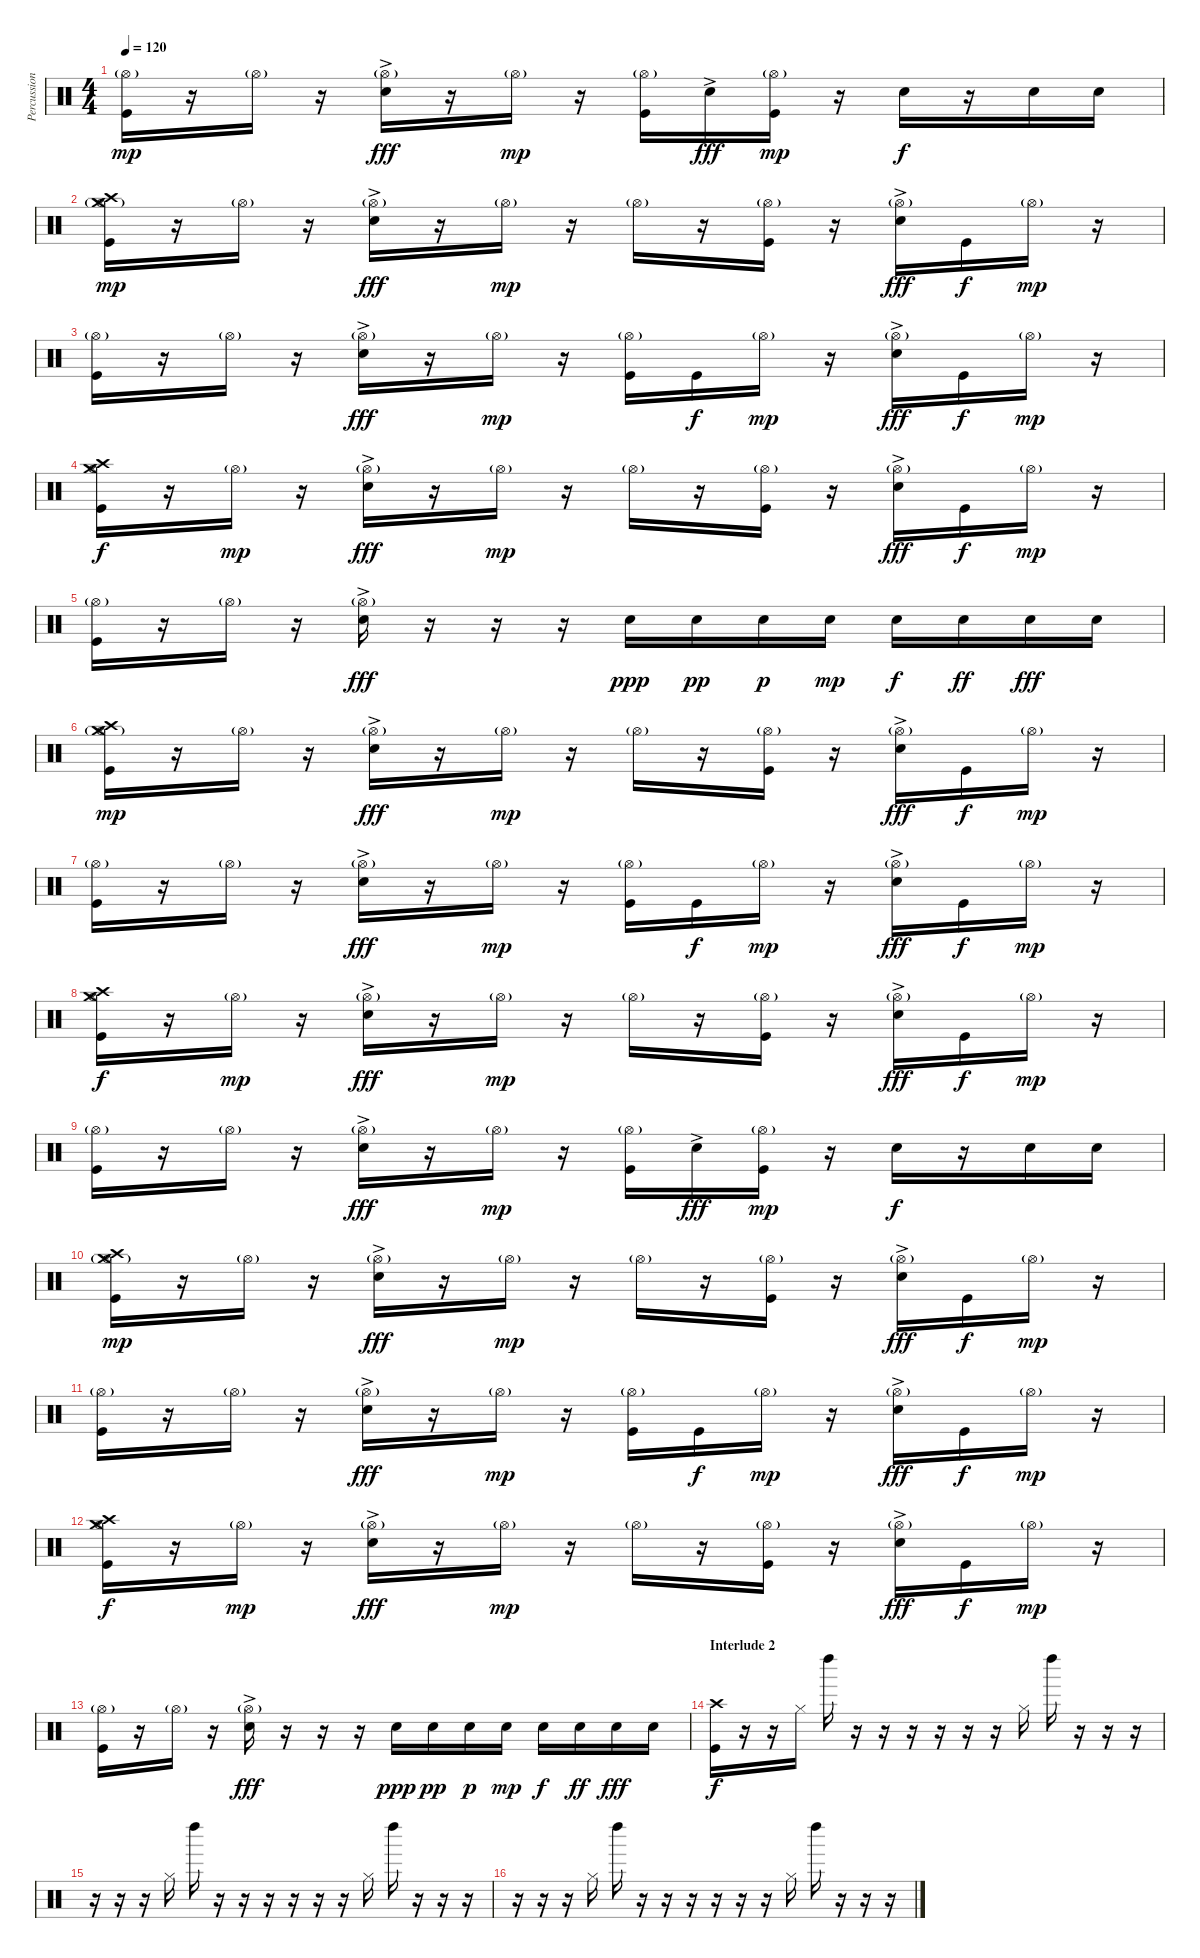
\track ("Percussions" "Percussion") {instrument percussion}
\staff {score}
\articulation defaults
\ts (4 4)
\tempo 120
\clef neutral
\ks c
("Hi-Hat (open)"{g} "Kick (hit)").16{dy mp} r.16 "Hi-Hat (open)"{g}.16 r.16 ("Hi-Hat (open)"{g} "Electric Snare (hit)"{ac}).16{dy fff} r.16 "Hi-Hat (open)"{g}.16{dy mp} r.16 ("Hi-Hat (open)"{g} "Kick (hit)").16 "Electric Snare (hit)"{ac}.16{dy fff} ("Hi-Hat (open)"{g} "Kick (hit)").16{dy mp} r.16 "Electric Snare (hit)".16{dy f} r.16 "Electric Snare (hit)".16 "Electric Snare (hit)".16 |
("Crash high (hit)" "Hi-Hat (open)"{g} "Crash medium (hit)" "Kick (hit)").16{dy mp} r.16 "Hi-Hat (open)"{g}.16 r.16 ("Hi-Hat (open)"{g} "Electric Snare (hit)"{ac}).16{dy fff} r.16 "Hi-Hat (open)"{g}.16{dy mp} r.16 "Hi-Hat (open)"{g}.16 r.16 ("Hi-Hat (open)"{g} "Kick (hit)").16 r.16 ("Hi-Hat (open)"{g} "Electric Snare (hit)"{ac}).16{dy fff} "Kick (hit)".16{dy f} "Hi-Hat (open)"{g}.16{dy mp} r.16 |
("Hi-Hat (open)"{g} "Kick (hit)").16 r.16 "Hi-Hat (open)"{g}.16 r.16 ("Hi-Hat (open)"{g} "Electric Snare (hit)"{ac}).16{dy fff} r.16 "Hi-Hat (open)"{g}.16{dy mp} r.16 ("Hi-Hat (open)"{g} "Kick (hit)").16 "Kick (hit)".16{dy f} "Hi-Hat (open)"{g}.16{dy mp} r.16 ("Hi-Hat (open)"{g} "Electric Snare (hit)"{ac}).16{dy fff} "Kick (hit)".16{dy f} "Hi-Hat (open)"{g}.16{dy mp} r.16 |
("Crash high (hit)" "Hi-Hat (open)" "Crash medium (hit)" "Kick (hit)").16{dy f} r.16 "Hi-Hat (open)"{g}.16{dy mp} r.16 ("Hi-Hat (open)"{g} "Electric Snare (hit)"{ac}).16{dy fff} r.16 "Hi-Hat (open)"{g}.16{dy mp} r.16 "Hi-Hat (open)"{g}.16 r.16 ("Hi-Hat (open)"{g} "Kick (hit)").16 r.16 ("Hi-Hat (open)"{g} "Electric Snare (hit)"{ac}).16{dy fff} "Kick (hit)".16{dy f} "Hi-Hat (open)"{g}.16{dy mp} r.16 |
("Hi-Hat (open)"{g} "Kick (hit)").16 r.16 "Hi-Hat (open)"{g}.16 r.16 ("Hi-Hat (open)"{g} "Electric Snare (hit)"{ac}).16{dy fff} r.16 r.16 r.16 "Electric Snare (hit)".16{dy ppp} "Electric Snare (hit)".16{dy pp} "Electric Snare (hit)".16{dy p} "Electric Snare (hit)".16{dy mp} "Electric Snare (hit)".16{dy f} "Electric Snare (hit)".16{dy ff} "Electric Snare (hit)".16{dy fff} "Electric Snare (hit)".16 |
("Crash high (hit)" "Hi-Hat (open)"{g} "Crash medium (hit)" "Kick (hit)").16{dy mp} r.16 "Hi-Hat (open)"{g}.16 r.16 ("Hi-Hat (open)"{g} "Electric Snare (hit)"{ac}).16{dy fff} r.16 "Hi-Hat (open)"{g}.16{dy mp} r.16 "Hi-Hat (open)"{g}.16 r.16 ("Hi-Hat (open)"{g} "Kick (hit)").16 r.16 ("Hi-Hat (open)"{g} "Electric Snare (hit)"{ac}).16{dy fff} "Kick (hit)".16{dy f} "Hi-Hat (open)"{g}.16{dy mp} r.16 |
("Hi-Hat (open)"{g} "Kick (hit)").16 r.16 "Hi-Hat (open)"{g}.16 r.16 ("Hi-Hat (open)"{g} "Electric Snare (hit)"{ac}).16{dy fff} r.16 "Hi-Hat (open)"{g}.16{dy mp} r.16 ("Hi-Hat (open)"{g} "Kick (hit)").16 "Kick (hit)".16{dy f} "Hi-Hat (open)"{g}.16{dy mp} r.16 ("Hi-Hat (open)"{g} "Electric Snare (hit)"{ac}).16{dy fff} "Kick (hit)".16{dy f} "Hi-Hat (open)"{g}.16{dy mp} r.16 |
("Crash high (hit)" "Hi-Hat (open)" "Crash medium (hit)" "Kick (hit)").16{dy f} r.16 "Hi-Hat (open)"{g}.16{dy mp} r.16 ("Hi-Hat (open)"{g} "Electric Snare (hit)"{ac}).16{dy fff} r.16 "Hi-Hat (open)"{g}.16{dy mp} r.16 "Hi-Hat (open)"{g}.16 r.16 ("Hi-Hat (open)"{g} "Kick (hit)").16 r.16 ("Hi-Hat (open)"{g} "Electric Snare (hit)"{ac}).16{dy fff} "Kick (hit)".16{dy f} "Hi-Hat (open)"{g}.16{dy mp} r.16 |
("Hi-Hat (open)"{g} "Kick (hit)").16 r.16 "Hi-Hat (open)"{g}.16 r.16 ("Hi-Hat (open)"{g} "Electric Snare (hit)"{ac}).16{dy fff} r.16 "Hi-Hat (open)"{g}.16{dy mp} r.16 ("Hi-Hat (open)"{g} "Kick (hit)").16 "Electric Snare (hit)"{ac}.16{dy fff} ("Hi-Hat (open)"{g} "Kick (hit)").16{dy mp} r.16 "Electric Snare (hit)".16{dy f} r.16 "Electric Snare (hit)".16 "Electric Snare (hit)".16 |
("Crash high (hit)" "Hi-Hat (open)"{g} "Crash medium (hit)" "Kick (hit)").16{dy mp} r.16 "Hi-Hat (open)"{g}.16 r.16 ("Hi-Hat (open)"{g} "Electric Snare (hit)"{ac}).16{dy fff} r.16 "Hi-Hat (open)"{g}.16{dy mp} r.16 "Hi-Hat (open)"{g}.16 r.16 ("Hi-Hat (open)"{g} "Kick (hit)").16 r.16 ("Hi-Hat (open)"{g} "Electric Snare (hit)"{ac}).16{dy fff} "Kick (hit)".16{dy f} "Hi-Hat (open)"{g}.16{dy mp} r.16 |
("Hi-Hat (open)"{g} "Kick (hit)").16 r.16 "Hi-Hat (open)"{g}.16 r.16 ("Hi-Hat (open)"{g} "Electric Snare (hit)"{ac}).16{dy fff} r.16 "Hi-Hat (open)"{g}.16{dy mp} r.16 ("Hi-Hat (open)"{g} "Kick (hit)").16 "Kick (hit)".16{dy f} "Hi-Hat (open)"{g}.16{dy mp} r.16 ("Hi-Hat (open)"{g} "Electric Snare (hit)"{ac}).16{dy fff} "Kick (hit)".16{dy f} "Hi-Hat (open)"{g}.16{dy mp} r.16 |
("Crash high (hit)" "Hi-Hat (open)" "Crash medium (hit)" "Kick (hit)").16{dy f} r.16 "Hi-Hat (open)"{g}.16{dy mp} r.16 ("Hi-Hat (open)"{g} "Electric Snare (hit)"{ac}).16{dy fff} r.16 "Hi-Hat (open)"{g}.16{dy mp} r.16 "Hi-Hat (open)"{g}.16 r.16 ("Hi-Hat (open)"{g} "Kick (hit)").16 r.16 ("Hi-Hat (open)"{g} "Electric Snare (hit)"{ac}).16{dy fff} "Kick (hit)".16{dy f} "Hi-Hat (open)"{g}.16{dy mp} r.16 |
("Hi-Hat (open)"{g} "Kick (hit)").16 r.16 "Hi-Hat (open)"{g}.16 r.16 ("Hi-Hat (open)"{g} "Electric Snare (hit)"{ac}).16{dy fff} r.16 r.16 r.16 "Electric Snare (hit)".16{dy ppp} "Electric Snare (hit)".16{dy pp} "Electric Snare (hit)".16{dy p} "Electric Snare (hit)".16{dy mp} "Electric Snare (hit)".16{dy f} "Electric Snare (hit)".16{dy ff} "Electric Snare (hit)".16{dy fff} "Electric Snare (hit)".16 |
\section ("" "Interlude 2")
("Crash high (hit)" "Kick (hit)").16{dy f} r.16 r.16 "Hi-Hat (closed)".16 "Left Maraca (hit)".16 r.16 r.16 r.16 r.16 r.16 r.16 "Hi-Hat (closed)".16 "Left Maraca (hit)".16 r.16 r.16 r.16 |
r.16 r.16 r.16 "Hi-Hat (closed)".16 "Left Maraca (hit)".16 r.16 r.16 r.16 r.16 r.16 r.16 "Hi-Hat (closed)".16 "Left Maraca (hit)".16 r.16 r.16 r.16 |
r.16 r.16 r.16 "Hi-Hat (closed)".16 "Left Maraca (hit)".16 r.16 r.16 r.16 r.16 r.16 r.16 "Hi-Hat (closed)".16 "Left Maraca (hit)".16 r.16 r.16 r.16
